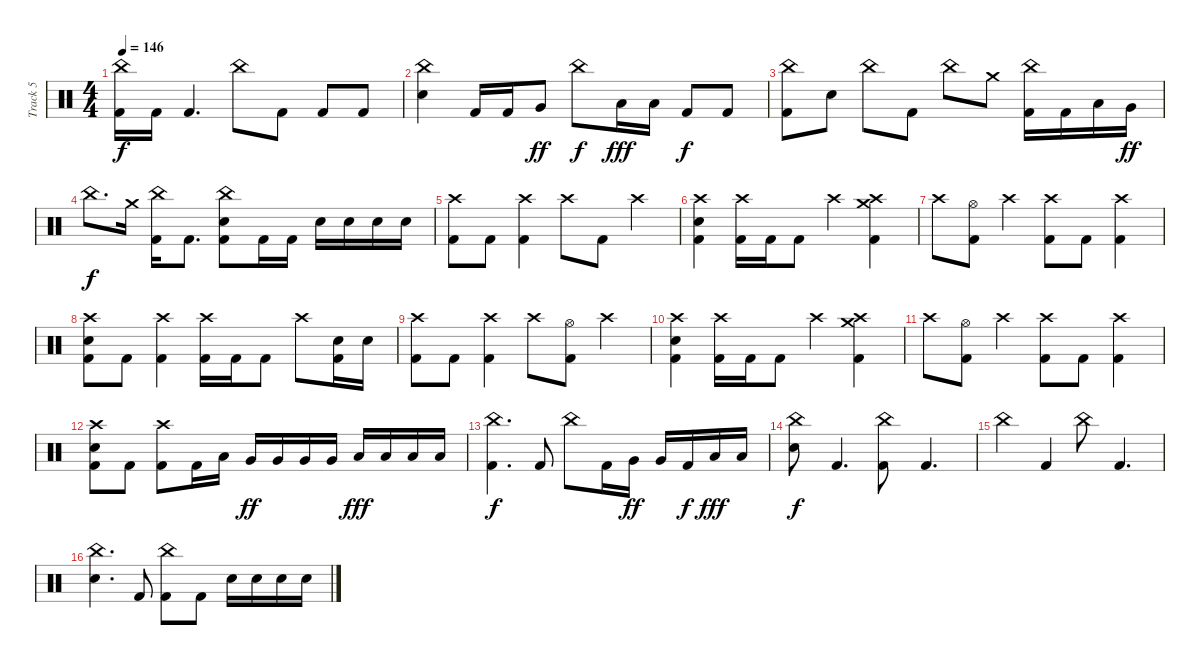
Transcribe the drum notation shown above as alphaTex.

\track ("Track 5" "Track 5") {instrument percussion}
\staff {score}
\articulation defaults
\ts (4 4)
\tempo 146
\clef neutral
\ks c
("China (hit)" "Kick (hit) 2").16{dy f} "Kick (hit) 2".16 "Kick (hit) 2".4{d} "China (hit)".8 "Kick (hit) 2".8 "Kick (hit) 2".8 "Kick (hit) 2".8 |
("China (hit)" "Electric Snare (hit)").4 "Kick (hit) 2".16 "Kick (hit) 2".16 "Very Low Tom (hit)".8{dy ff} "China (hit)".8{dy f} "Low Floor Tom (hit)".16{dy fff} "Low Floor Tom (hit)".16 "Kick (hit) 2".8{dy f} "Kick (hit) 2".8 |
("China (hit)" "Kick (hit) 2").8 "Electric Snare (hit)".8 "China (hit)".8 "Kick (hit) 2".8 "China (hit)".8 "Crash medium (hit)".8 ("China (hit)" "Kick (hit) 2").16 "Kick (hit) 2".16 "Low Tom (hit)".16 "Very Low Tom (hit)".16{dy ff} |
"China (hit)".8{d dy f} "Crash medium (hit)".16 ("China (hit)" "Kick (hit) 2").16 "Kick (hit) 2".8{d} ("China (hit)" "Electric Snare (hit)" "Kick (hit) 2").8 "Kick (hit) 2".16 "Kick (hit) 2".16 "Electric Snare (hit)".16 "Electric Snare (hit)".16 "Electric Snare (hit)".16 "Electric Snare (hit)".16 |
("Crash high (hit)" "Kick (hit) 2").8 "Kick (hit) 2".8 ("Crash high (hit)" "Kick (hit) 2").4 "Crash high (hit)".8 "Kick (hit) 2".8 "Crash high (hit)".4 |
("Crash high (hit)" "Electric Snare (hit)" "Kick (hit) 2").4 ("Crash high (hit)" "Kick (hit) 2").16 "Kick (hit) 2".16 "Kick (hit) 2".8 "Crash high (hit)".4 ("Crash medium (hit)" "Crash high (hit)" "Kick (hit) 2").4 |
"Crash high (hit)".8 ("Hi-Hat (open)" "Kick (hit) 2").8 "Crash high (hit)".4 ("Crash high (hit)" "Kick (hit) 2").8 "Kick (hit) 2".8 ("Crash high (hit)" "Kick (hit) 2").4 |
("Crash high (hit)" "Electric Snare (hit)" "Kick (hit) 2").8 "Kick (hit) 2".8 ("Crash high (hit)" "Kick (hit) 2").4 ("Crash high (hit)" "Kick (hit) 2").16 "Kick (hit) 2".16 "Kick (hit) 2".8 "Crash high (hit)".8 ("Electric Snare (hit)" "Kick (hit) 2").16 "Electric Snare (hit)".16 |
("Crash high (hit)" "Kick (hit) 2").8 "Kick (hit) 2".8 ("Crash high (hit)" "Kick (hit) 2").4 "Crash high (hit)".8 ("Hi-Hat (open)" "Kick (hit) 2").8 "Crash high (hit)".4 |
("Crash high (hit)" "Electric Snare (hit)" "Kick (hit) 2").4 ("Crash high (hit)" "Kick (hit) 2").16 "Kick (hit) 2".16 "Kick (hit) 2".8 "Crash high (hit)".4 ("Crash medium (hit)" "Crash high (hit)" "Kick (hit) 2").4 |
"Crash high (hit)".8 ("Hi-Hat (open)" "Kick (hit) 2").8 "Crash high (hit)".4 ("Crash high (hit)" "Kick (hit) 2").8 "Kick (hit) 2".8 ("Crash high (hit)" "Kick (hit) 2").4 |
("Crash high (hit)" "Electric Snare (hit)" "Kick (hit) 2").8 "Kick (hit) 2".8 ("Crash high (hit)" "Kick (hit) 2").8 "Kick (hit) 2".16 "Low Tom (hit)".16 "Very Low Tom (hit)".16{dy ff} "Very Low Tom (hit)".16 "Very Low Tom (hit)".16 "Very Low Tom (hit)".16 "Low Floor Tom (hit)".16{dy fff} "Low Floor Tom (hit)".16 "Low Floor Tom (hit)".16 "Low Floor Tom (hit)".16 |
("China (hit)" "Kick (hit) 2").4{d dy f} "Kick (hit) 2".8 "China (hit)".8 "Kick (hit) 2".16 "Very Low Tom (hit)".16{dy ff} "Very Low Tom (hit)".16 "Kick (hit) 2".16{dy f} "Low Floor Tom (hit)".16{dy fff} "Low Floor Tom (hit)".16 |
("China (hit)" "Electric Snare (hit)").8{dy f} "Kick (hit) 2".4{d} ("China (hit)" "Kick (hit) 2").8 "Kick (hit) 2".4{d} |
"China (hit)".4 "Kick (hit) 2".4 "China (hit)".8 "Kick (hit) 2".4{d} |
("China (hit)" "Electric Snare (hit)").4{d} "Kick (hit) 2".8 ("China (hit)" "Kick (hit) 2").8 "Kick (hit) 2".8 "Electric Snare (hit)".16 "Electric Snare (hit)".16 "Electric Snare (hit)".16 "Electric Snare (hit)".16
